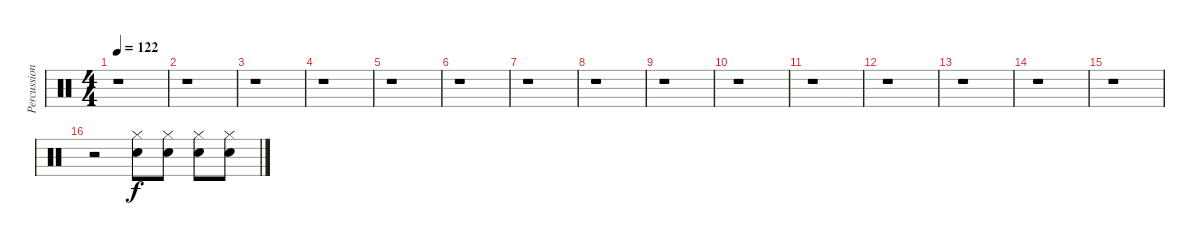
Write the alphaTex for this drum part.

\track ("Percussions" "Percussion") {instrument percussion}
\staff {score}
\articulation defaults
\ts (4 4)
\tempo 122
\clef neutral
\ks c
r.1{dy f} |
r.1 |
r.1 |
r.1 |
r.1 |
r.1 |
r.1 |
r.1 |
r.1 |
r.1 |
r.1 |
r.1 |
r.1 |
r.1 |
r.1 |
r.2 ("Hi-Hat (closed)" "Snare (hit) 2").8 ("Hi-Hat (closed)" "Snare (hit) 2").8 ("Hi-Hat (closed)" "Snare (hit) 2").8 ("Hi-Hat (closed)" "Snare (hit) 2").8
